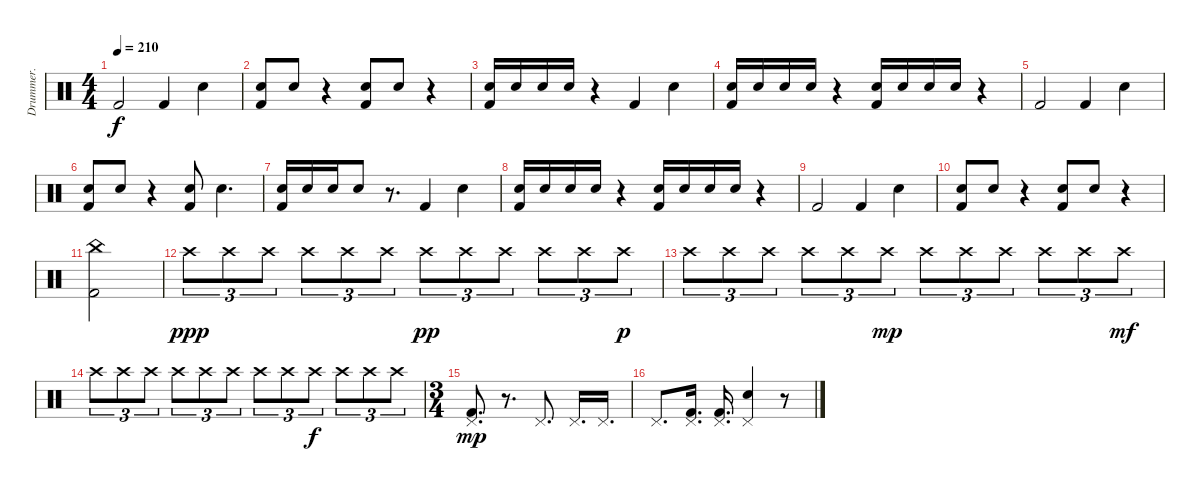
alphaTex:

\track ("Drummer." "Drummer.") {instrument percussion}
\staff {score}
\articulation defaults
\ts (4 4)
\tempo 210
\clef neutral
\ks c "Kick (hit) 2".2{dy f} "Kick (hit) 2".4 "Snare (hit) 2".4
|
("Kick (hit) 2" "Snare (hit) 2").8 "Snare (hit) 2".8 r.4 ("Kick (hit) 2" "Snare (hit) 2").8 "Snare (hit) 2".8 r.4 |
("Kick (hit) 2" "Snare (hit) 2").16 "Snare (hit) 2".16 "Snare (hit) 2".16 "Snare (hit) 2".16 r.4 "Kick (hit) 2".4 "Snare (hit) 2".4 |
("Kick (hit) 2" "Snare (hit) 2").16 "Snare (hit) 2".16 "Snare (hit) 2".16 "Snare (hit) 2".16 r.4 ("Kick (hit) 2" "Snare (hit) 2").16 "Snare (hit) 2".16 "Snare (hit) 2".16 "Snare (hit) 2".16 r.4 |
"Kick (hit) 2".2 "Kick (hit) 2".4 "Snare (hit) 2".4 |
("Kick (hit) 2" "Snare (hit) 2").8 "Snare (hit) 2".8 r.4 ("Kick (hit) 2" "Snare (hit) 2").8 "Snare (hit) 2".4{d} |
("Kick (hit) 2" "Snare (hit) 2").16 "Snare (hit) 2".16 "Snare (hit) 2".16 "Snare (hit) 2".8 r.8{d} "Kick (hit) 2".4 "Snare (hit) 2".4 |
("Kick (hit) 2" "Snare (hit) 2").16 "Snare (hit) 2".16 "Snare (hit) 2".16 "Snare (hit) 2".16 r.4 ("Kick (hit) 2" "Snare (hit) 2").16 "Snare (hit) 2".16 "Snare (hit) 2".16 "Snare (hit) 2".16 r.4 |
"Kick (hit) 2".2 "Kick (hit) 2".4 "Snare (hit) 2".4 |
("Kick (hit) 2" "Snare (hit) 2").8 "Snare (hit) 2".8 r.4 ("Kick (hit) 2" "Snare (hit) 2").8 "Snare (hit) 2".8 r.4 |
("China (hit)" "Kick (hit) 2").2 |
"Crash high (hit)".8{tu (3 2) dy ppp} "Crash high (hit)".8{tu (3 2)} "Crash high (hit)".8{tu (3 2)} "Crash high (hit)".8{tu (3 2)} "Crash high (hit)".8{tu (3 2)} "Crash high (hit)".8{tu (3 2)} "Crash high (hit)".8{tu (3 2) dy pp} "Crash high (hit)".8{tu (3 2)} "Crash high (hit)".8{tu (3 2)} "Crash high (hit)".8{tu (3 2)} "Crash high (hit)".8{tu (3 2)} "Crash high (hit)".8{tu (3 2) dy p} |
"Crash high (hit)".8{tu (3 2)} "Crash high (hit)".8{tu (3 2)} "Crash high (hit)".8{tu (3 2)} "Crash high (hit)".8{tu (3 2)} "Crash high (hit)".8{tu (3 2)} "Crash high (hit)".8{tu (3 2) dy mp} "Crash high (hit)".8{tu (3 2)} "Crash high (hit)".8{tu (3 2)} "Crash high (hit)".8{tu (3 2)} "Crash high (hit)".8{tu (3 2)} "Crash high (hit)".8{tu (3 2)} "Crash high (hit)".8{tu (3 2) dy mf} |
"Crash high (hit)".8{tu (3 2)} "Crash high (hit)".8{tu (3 2)} "Crash high (hit)".8{tu (3 2)} "Crash high (hit)".8{tu (3 2)} "Crash high (hit)".8{tu (3 2)} "Crash high (hit)".8{tu (3 2)} "Crash high (hit)".8{tu (3 2)} "Crash high (hit)".8{tu (3 2)} "Crash high (hit)".8{tu (3 2) dy f} "Crash high (hit)".8{tu (3 2)} "Crash high (hit)".8{tu (3 2)} "Crash high (hit)".8{tu (3 2)} |
\ts (3 4)
("Pedal Hi-Hat (hit)" "Kick (hit) 2").8{d dy mp} r.8{d} "Pedal Hi-Hat (hit)".8{d} "Pedal Hi-Hat (hit)".16{d} "Pedal Hi-Hat (hit)".16{d} |
"Pedal Hi-Hat (hit)".8{d} ("Pedal Hi-Hat (hit)" "Kick (hit) 2").16{d} ("Pedal Hi-Hat (hit)" "Kick (hit) 2").16{d} ("Pedal Hi-Hat (hit)" "Electric Snare (hit)").4 r.8
